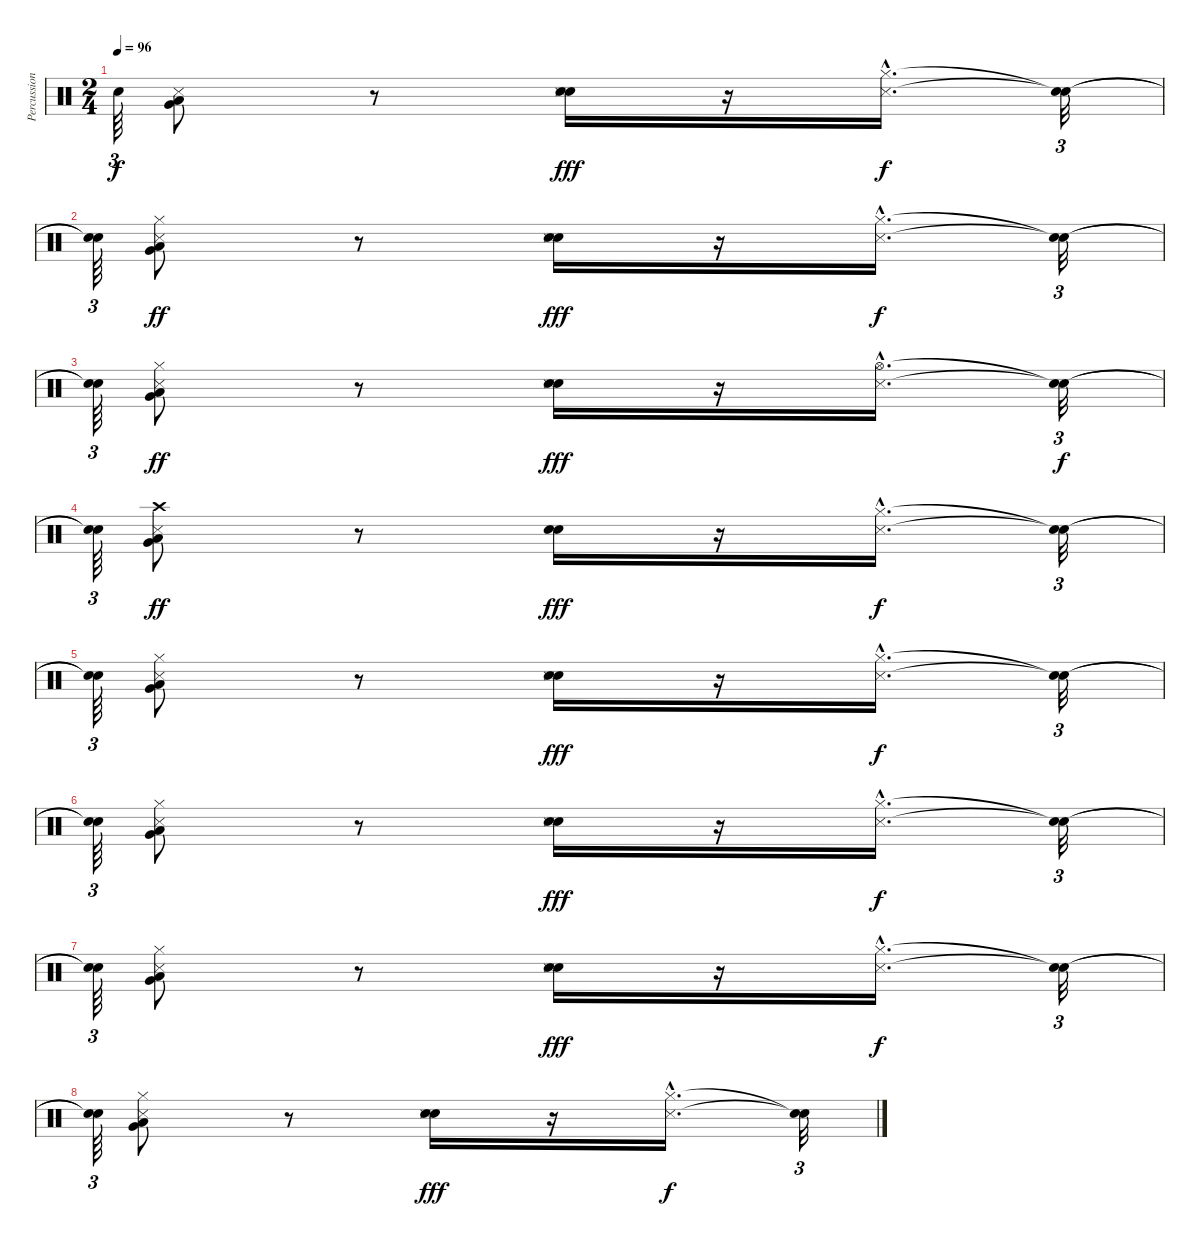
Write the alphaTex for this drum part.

\track ("Percussion" "Percussion") {instrument percussion}
\staff {score}
\articulation defaults
\ts (2 4)
\tempo 96
\clef neutral
\ks c "Snare (hit)"{t}.64{tu (3 2) dy f}
("Snare (side stick) 3" "Very Low Tom (hit)" "Low Floor Tom (hit)").8 r.8 ("Electric Snare (hit)" "Snare (side stick) 3" "Snare (hit) 2").16{dy fff} r.16 ("Hi-Hat (closed)"{hac} "Snare (side stick) 3"{hac}).16{d dy f} ("Snare (hit)"{t} "Snare (hit)"{t}).32{tu (3 2)} |
("Snare (hit)"{t} "Snare (hit)"{t}).64{tu (3 2)} ("Hi-Hat (closed)" "Snare (side stick) 3" "Very Low Tom (hit)" "Low Floor Tom (hit)").8{dy ff} r.8 ("Electric Snare (hit)" "Snare (side stick) 3" "Snare (hit) 2").16{dy fff} r.16 ("Hi-Hat (closed)"{hac} "Snare (side stick) 3"{hac}).16{d dy f} ("Snare (hit)"{t} "Snare (hit)"{t}).32{tu (3 2)} |
("Snare (hit)"{t} "Snare (hit)"{t}).64{tu (3 2)} ("Hi-Hat (closed)" "Snare (side stick) 3" "Very Low Tom (hit)" "Low Floor Tom (hit)").8{dy ff} r.8 ("Electric Snare (hit)" "Snare (side stick) 3" "Snare (hit) 2").16{dy fff} r.16 ("Hi-Hat (open)"{hac} "Snare (side stick) 3"{hac}).16{d} ("Snare (hit)"{t} "Snare (hit)"{t}).32{tu (3 2) dy f} |
("Snare (hit)"{t} "Snare (hit)"{t}).64{tu (3 2)} ("Crash high (hit)" "Snare (side stick) 3" "Very Low Tom (hit)" "Low Floor Tom (hit)").8{dy ff} r.8 ("Electric Snare (hit)" "Snare (hit) 2").16{dy fff} r.16 ("Hi-Hat (closed)"{hac} "Snare (side stick) 3"{hac}).16{d dy f} ("Snare (hit)"{t} "Snare (hit)"{t}).32{tu (3 2)} |
("Snare (hit)"{t} "Snare (hit)"{t}).64{tu (3 2)} ("Hi-Hat (closed)" "Snare (side stick) 3" "Very Low Tom (hit)" "Low Floor Tom (hit)").8 r.8 ("Electric Snare (hit)" "Snare (side stick) 3" "Snare (hit) 2").16{dy fff} r.16 ("Hi-Hat (closed)"{hac} "Snare (side stick) 3"{hac}).16{d dy f} ("Snare (hit)"{t} "Snare (hit)"{t}).32{tu (3 2)} |
("Snare (hit)"{t} "Snare (hit)"{t}).64{tu (3 2)} ("Hi-Hat (closed)" "Snare (side stick) 3" "Very Low Tom (hit)" "Low Floor Tom (hit)").8 r.8 ("Electric Snare (hit)" "Snare (side stick) 3" "Snare (hit) 2").16{dy fff} r.16 ("Hi-Hat (closed)"{hac} "Snare (side stick) 3"{hac}).16{d dy f} ("Snare (hit)"{t} "Snare (hit)"{t}).32{tu (3 2)} |
("Snare (hit)"{t} "Snare (hit)"{t}).64{tu (3 2)} ("Hi-Hat (closed)" "Snare (side stick) 3" "Very Low Tom (hit)" "Low Floor Tom (hit)").8 r.8 ("Electric Snare (hit)" "Snare (side stick) 3" "Snare (hit) 2").16{dy fff} r.16 ("Hi-Hat (closed)"{hac} "Snare (side stick) 3"{hac}).16{d dy f} ("Snare (hit)"{t} "Snare (hit)"{t}).32{tu (3 2)} |
("Snare (hit)"{t} "Snare (hit)"{t}).64{tu (3 2)} ("Hi-Hat (closed)" "Snare (side stick) 3" "Very Low Tom (hit)" "Low Floor Tom (hit)").8 r.8 ("Electric Snare (hit)" "Snare (side stick) 3" "Snare (hit) 2").16{dy fff} r.16 ("Hi-Hat (closed)"{hac} "Snare (side stick) 3"{hac}).16{d dy f} ("Snare (hit)"{t} "Snare (hit)"{t}).32{tu (3 2)}
